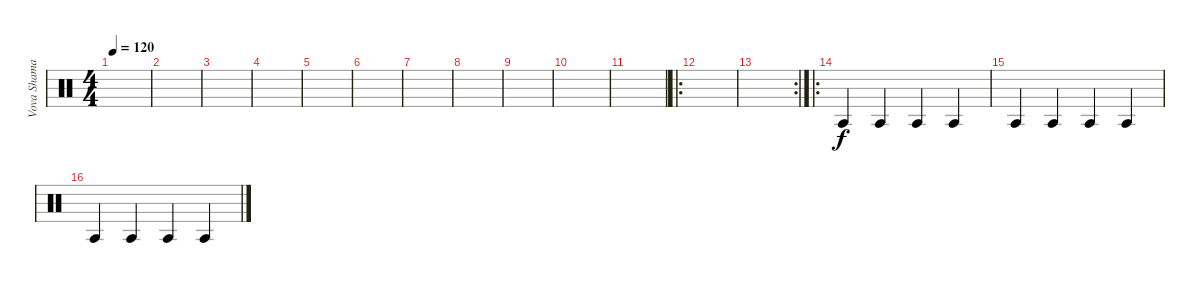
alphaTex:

\track ("Vova Shamay 2" "Vova Shama") {instrument percussion}
\staff {score}
\articulation defaults
\ts (4 4)
\tempo 120
\clef neutral
\ks c
|
|
|
|
|
|
|
|
|
|
|
\ro
|
\rc 2
|
\ro "Agogo tow (hit)".4 "Agogo tow (hit)".4 "Agogo tow (hit)".4 "Agogo tow (hit)".4
|
"Agogo tow (hit)".4 "Agogo tow (hit)".4 "Agogo tow (hit)".4 "Agogo tow (hit)".4 |
"Agogo tow (hit)".4 "Agogo tow (hit)".4 "Agogo tow (hit)".4 "Agogo tow (hit)".4
